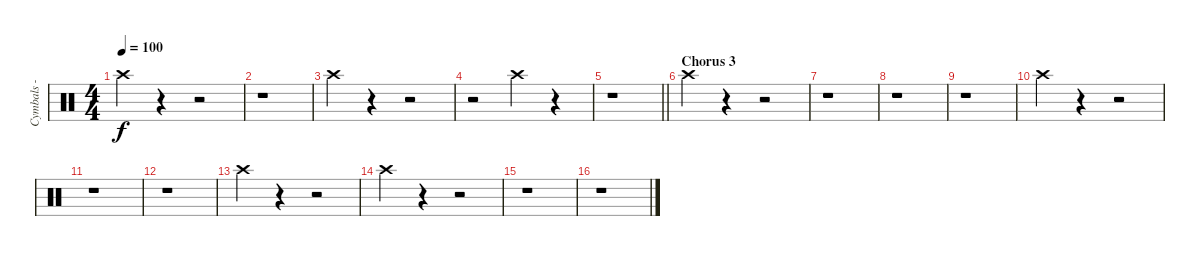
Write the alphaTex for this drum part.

\track ("Cymbals - crash" "Cymbals - ") {instrument percussion}
\staff {score}
\articulation defaults
\ts (4 4)
\tempo 100
\clef neutral
\ks c "Crash high (hit)".4{dy f}
r.4 r.2 |
r.1 |
"Crash high (hit)".4 r.4 r.2 |
r.2 "Crash high (hit)".4 r.4 |
\barLineRight lightlight
\ks aminor
r.1 |
\section ("" "Chorus 3")
\ks c "Crash high (hit)".4
r.4 r.2 |
r.1 |
r.1 |
r.1 |
"Crash high (hit)".4 r.4 r.2 |
r.1 |
r.1 |
"Crash high (hit)".4 r.4 r.2 |
"Crash high (hit)".4 r.4 r.2 |
r.1 |
r.1
